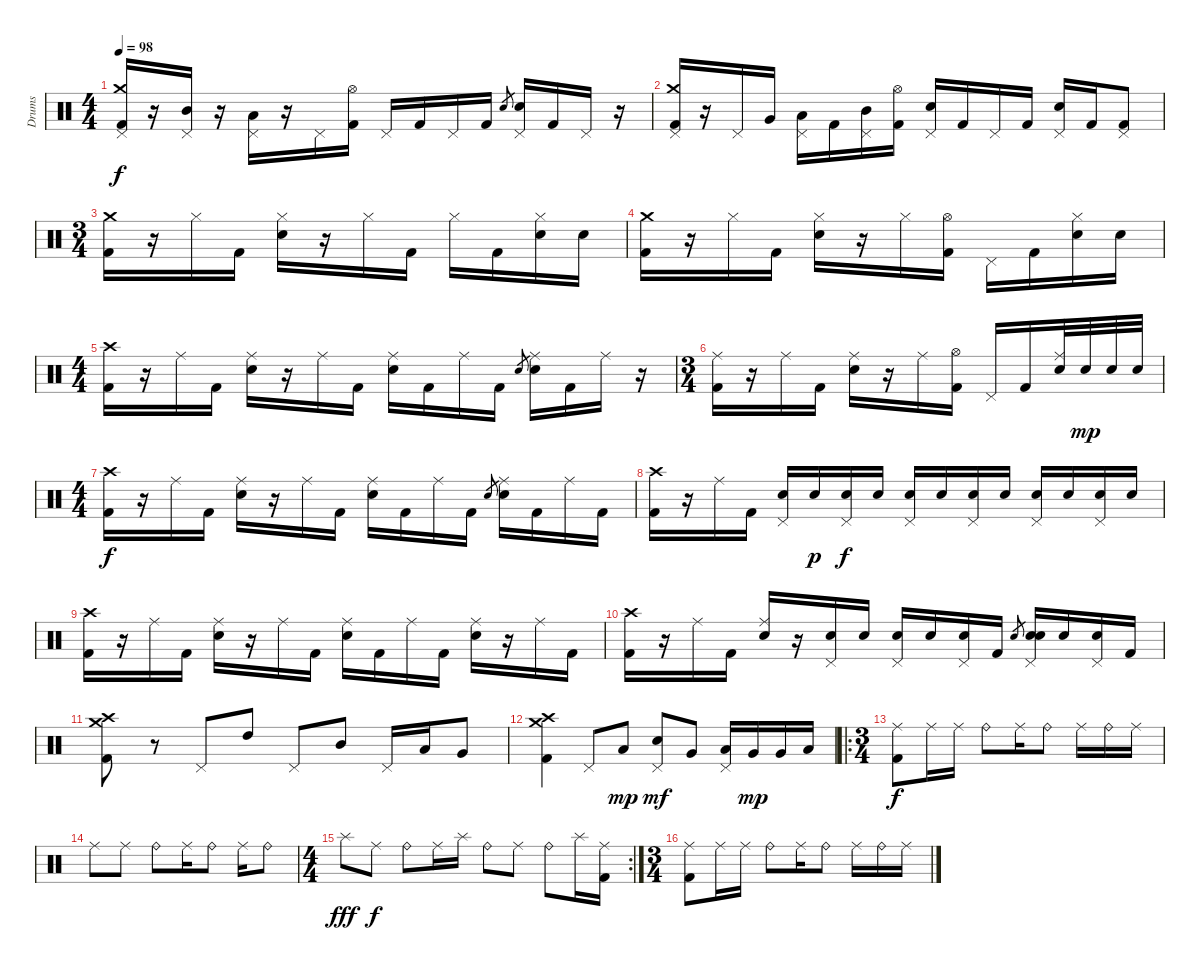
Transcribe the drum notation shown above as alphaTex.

\track ("Drums" "Drums") {instrument percussion}
\staff {score}
\articulation defaults
\ts (4 4)
\tempo 98
\clef neutral
\ks c
("Pedal Hi-Hat (hit)" "Crash medium (hit)" "Kick (hit) 2").16{dy f} r.16 ("Pedal Hi-Hat (hit)" "Mid Tom (hit)").16 r.16 ("Pedal Hi-Hat (hit)" "Low Tom (hit)").16 r.16 "Pedal Hi-Hat (hit)".16 ("Hi-Hat (open)" "Kick (hit) 2").16 "Pedal Hi-Hat (hit)".16 "Kick (hit) 2".16 "Pedal Hi-Hat (hit)".16 "Kick (hit) 2".16 "Snare (hit) 2".8{gr} ("Pedal Hi-Hat (hit)" "Snare (hit) 2").16 "Kick (hit) 2".16 "Pedal Hi-Hat (hit)".16 r.16 |
("Pedal Hi-Hat (hit)" "Crash medium (hit)" "Kick (hit) 2").16 r.16 "Pedal Hi-Hat (hit)".16 "Very Low Tom (hit)".16 ("Pedal Hi-Hat (hit)" "Low Tom (hit)").16 "Kick (hit) 2".16 ("Pedal Hi-Hat (hit)" "Mid Tom (hit)").16 ("Hi-Hat (open)" "Kick (hit) 2").16 ("Pedal Hi-Hat (hit)" "Snare (hit) 2").16 "Kick (hit) 2".16 "Pedal Hi-Hat (hit)".16 "Kick (hit) 2".16 ("Pedal Hi-Hat (hit)" "Snare (hit) 2").16 "Kick (hit) 2".16 ("Pedal Hi-Hat (hit)" "Kick (hit) 2").8 |
\ts (3 4)
("Crash medium (hit)" "Kick (hit) 2").16 r.16 "Hi-Hat (closed)".16 "Kick (hit) 2".16 ("Hi-Hat (closed)" "Snare (hit) 2").16 r.16 "Hi-Hat (closed)".16 "Kick (hit) 2".16 "Hi-Hat (closed)".16 "Kick (hit) 2".16 ("Hi-Hat (closed)" "Snare (hit) 2").16 "Snare (hit) 2".16 |
("Crash medium (hit)" "Kick (hit) 2").16 r.16 "Hi-Hat (closed)".16 "Kick (hit) 2".16 ("Hi-Hat (closed)" "Snare (hit) 2").16 r.16 "Hi-Hat (closed)".16 ("Hi-Hat (open)" "Kick (hit) 2").16 "Pedal Hi-Hat (hit)".16 "Kick (hit) 2".16 ("Hi-Hat (closed)" "Snare (hit) 2").16 "Snare (hit) 2".16 |
\ts (4 4)
("Crash high (hit)" "Kick (hit) 2").16 r.16 "Ride (middle)".16 "Kick (hit) 2".16 ("Ride (middle)" "Snare (hit) 2").16 r.16 "Ride (middle)".16 "Kick (hit) 2".16 ("Ride (middle)" "Snare (hit) 2").16 "Kick (hit) 2".16 "Ride (middle)".16 "Kick (hit) 2".16 "Snare (hit) 2".8{gr} ("Ride (middle)" "Snare (hit) 2").16 "Kick (hit) 2".16 "Ride (middle)".16 r.16 |
\ts (3 4)
("Ride (middle)" "Kick (hit) 2").16 r.16 "Ride (middle)".16 "Kick (hit) 2".16 ("Ride (middle)" "Snare (hit) 2").16 r.16 "Ride (middle)".16 ("Hi-Hat (open)" "Kick (hit) 2").16 "Pedal Hi-Hat (hit)".16 "Kick (hit) 2".16 ("Ride (middle)" "Snare (hit) 2").32 "Snare (hit) 2".32{dy mp} "Snare (hit) 2".32 "Snare (hit) 2".32 |
\ts (4 4)
("Crash high (hit)" "Kick (hit) 2").16{dy f} r.16 "Ride (middle)".16 "Kick (hit) 2".16 ("Ride (middle)" "Snare (hit) 2").16 r.16 "Ride (middle)".16 "Kick (hit) 2".16 ("Ride (middle)" "Snare (hit) 2").16 "Kick (hit) 2".16 "Ride (middle)".16 "Kick (hit) 2".16 "Snare (hit) 2".8{gr} ("Ride (middle)" "Snare (hit) 2").16 "Kick (hit) 2".16 "Ride (middle)".16 "Kick (hit) 2".16 |
("Crash high (hit)" "Kick (hit) 2").16 r.16 "Ride (middle)".16 "Kick (hit) 2".16 ("Pedal Hi-Hat (hit)" "Snare (hit) 2").16 "Snare (hit) 2".16{dy p} ("Pedal Hi-Hat (hit)" "Snare (hit) 2").16{dy f} "Snare (hit) 2".16 ("Pedal Hi-Hat (hit)" "Snare (hit) 2").16 "Snare (hit) 2".16 ("Pedal Hi-Hat (hit)" "Snare (hit) 2").16 "Snare (hit) 2".16 ("Pedal Hi-Hat (hit)" "Snare (hit) 2").16 "Snare (hit) 2".16 ("Pedal Hi-Hat (hit)" "Snare (hit) 2").16 "Snare (hit) 2".16 |
("Crash high (hit)" "Kick (hit) 2").16 r.16 "Ride (middle)".16 "Kick (hit) 2".16 ("Ride (middle)" "Snare (hit) 2").16 r.16 "Ride (middle)".16 "Kick (hit) 2".16 ("Ride (middle)" "Snare (hit) 2").16 "Kick (hit) 2".16 "Ride (middle)".16 "Kick (hit) 2".16 ("Ride (middle)" "Snare (hit) 2").16 r.16 "Ride (middle)".16 "Kick (hit) 2".16 |
("Crash high (hit)" "Kick (hit) 2").16 r.16 "Ride (middle)".16 "Kick (hit) 2".16 ("Ride (middle)" "Snare (hit) 2").16 r.16 ("Pedal Hi-Hat (hit)" "Snare (hit) 2").16 "Snare (hit) 2".16 ("Pedal Hi-Hat (hit)" "Snare (hit) 2").16 "Snare (hit) 2".16 ("Pedal Hi-Hat (hit)" "Snare (hit) 2").16 "Kick (hit) 2".16 "Snare (hit) 2".8{gr} ("Pedal Hi-Hat (hit)" "Snare (hit) 2" "Snare (hit) 2").16 "Snare (hit) 2".16 ("Pedal Hi-Hat (hit)" "Snare (hit) 2").16 "Kick (hit) 2".16 |
("Crash high (hit)" "Crash medium (hit)" "Kick (hit) 2").8 r.8 "Pedal Hi-Hat (hit)".8 "High Tom (hit)".8 "Pedal Hi-Hat (hit)".8 "Mid Tom (hit)".8 "Pedal Hi-Hat (hit)".16 "Low Tom (hit)".16 "Very Low Tom (hit)".8 |
("Crash high (hit)" "Crash medium (hit)" "Kick (hit) 2").4 "Pedal Hi-Hat (hit)".8 "Low Floor Tom (hit)".8{dy mp} ("Pedal Hi-Hat (hit)" "Snare (hit) 2").8{dy mf} "Very Low Tom (hit)".8 ("Pedal Hi-Hat (hit)" "Low Tom (hit)").16 "Very Low Tom (hit)".16{dy mp} "Very Low Tom (hit)".16 "Low Floor Tom (hit)".16 |
\ro
\ts (3 4)
("Ride (middle)" "Kick (hit) 2").8{dy f} "Ride (middle)".16 "Ride (middle)".16 "Ride (bell)".8 "Ride (middle)".16 "Ride (bell)".8 "Ride (middle)".16 "Ride (bell)".16 "Ride (middle)".16 |
"Ride (middle)".8 "Ride (middle)".8 "Ride (bell)".8 "Ride (middle)".16 "Ride (bell)".8 "Ride (middle)".16 "Ride (bell)".8 |
\rc 2
\ts (4 4)
"Splash (hit)".8{dy fff} "Ride (middle)".8{dy f} "Ride (bell)".8 "Ride (middle)".16 "Splash (hit)".16 "Ride (bell)".8 "Ride (middle)".8 "Ride (bell)".8 "Splash (hit)".16 ("Ride (middle)" "Kick (hit) 2").16 |
\ts (3 4)
("Ride (middle)" "Kick (hit) 2").8 "Ride (middle)".16 "Ride (middle)".16 "Ride (bell)".8 "Ride (middle)".16 "Ride (bell)".8 "Ride (middle)".16 "Ride (bell)".16 "Ride (middle)".16
